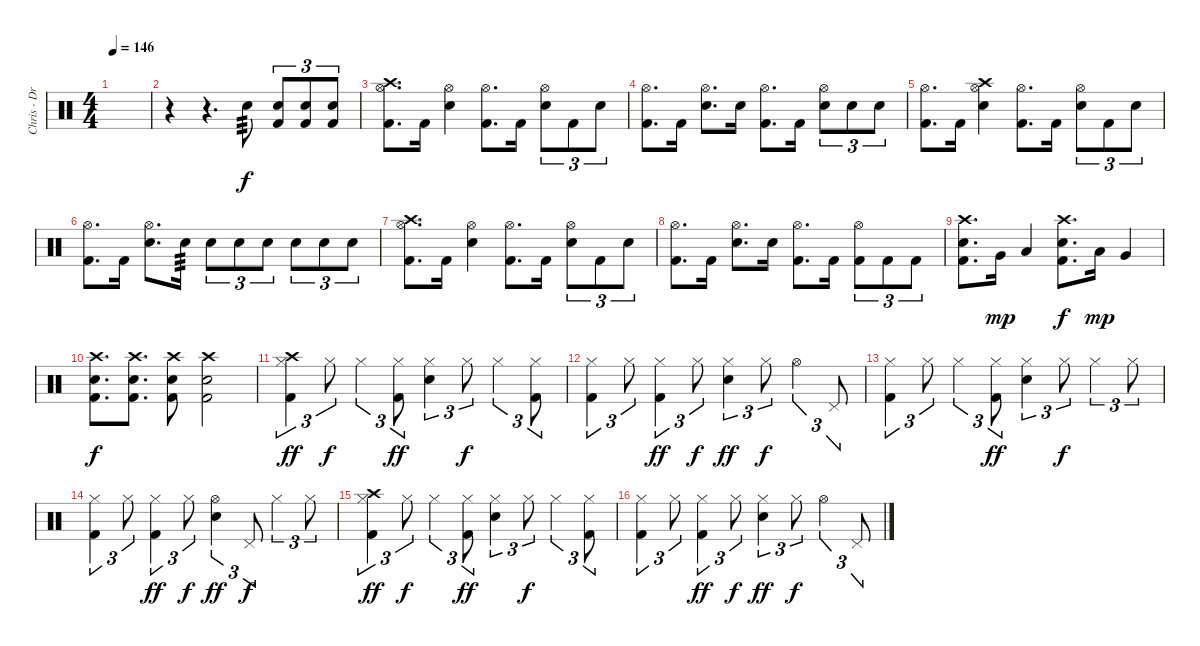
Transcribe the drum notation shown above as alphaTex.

\track ("Chris - Drums" "Chris - Dr") {instrument percussion}
\staff {score}
\articulation defaults
\ts (4 4)
\tempo 146
\clef neutral
\ks c
|
r.4 r.4{d} "Electric Snare (hit)".8{tp 3} ("Electric Snare (hit)" "Kick (hit) 2").8{tu (3 2)} ("Electric Snare (hit)" "Kick (hit) 2").8{tu (3 2)} ("Electric Snare (hit)" "Kick (hit) 2").8{tu (3 2)} |
("Crash high (hit)" "Hi-Hat (open)" "Kick (hit) 2").8{d} "Kick (hit) 2".16 ("Hi-Hat (open)" "Electric Snare (hit)").4 ("Hi-Hat (open)" "Kick (hit) 2").8{d} "Kick (hit) 2".16 ("Hi-Hat (open)" "Electric Snare (hit)").8{tu (3 2)} "Kick (hit) 2".8{tu (3 2)} "Electric Snare (hit)".8{tu (3 2)} |
("Hi-Hat (open)" "Kick (hit) 2").8{d} "Kick (hit) 2".16 ("Hi-Hat (open)" "Electric Snare (hit)").8{d} "Electric Snare (hit)".16 ("Hi-Hat (open)" "Kick (hit) 2").8{d} "Kick (hit) 2".16 ("Hi-Hat (open)" "Electric Snare (hit)").8{tu (3 2)} "Electric Snare (hit)".8{tu (3 2)} "Electric Snare (hit)".8{tu (3 2)} |
("Hi-Hat (open)" "Kick (hit) 2").8{d} "Kick (hit) 2".16 ("Crash high (hit)" "Hi-Hat (open)" "Electric Snare (hit)").4 ("Hi-Hat (open)" "Kick (hit) 2").8{d} "Kick (hit) 2".16 ("Hi-Hat (open)" "Electric Snare (hit)").8{tu (3 2)} "Kick (hit) 2".8{tu (3 2)} "Electric Snare (hit)".8{tu (3 2)} |
("Hi-Hat (open)" "Kick (hit) 2").8{d} "Kick (hit) 2".16 ("Hi-Hat (open)" "Electric Snare (hit)").8{d} "Electric Snare (hit)".16{tp 3} "Electric Snare (hit)".8{tu (3 2)} "Electric Snare (hit)".8{tu (3 2)} "Electric Snare (hit)".8{tu (3 2)} "Electric Snare (hit)".8{tu (3 2)} "Electric Snare (hit)".8{tu (3 2)} "Electric Snare (hit)".8{tu (3 2)} |
("Crash high (hit)" "Hi-Hat (open)" "Kick (hit) 2").8{d} "Kick (hit) 2".16 ("Hi-Hat (open)" "Electric Snare (hit)").4 ("Hi-Hat (open)" "Kick (hit) 2").8{d} "Kick (hit) 2".16 ("Hi-Hat (open)" "Electric Snare (hit)").8{tu (3 2)} "Kick (hit) 2".8{tu (3 2)} "Electric Snare (hit)".8{tu (3 2)} |
("Hi-Hat (open)" "Kick (hit) 2").8{d} "Kick (hit) 2".16 ("Hi-Hat (open)" "Electric Snare (hit)").8{d} "Electric Snare (hit)".16 ("Hi-Hat (open)" "Kick (hit) 2").8{d} "Kick (hit) 2".16 ("Hi-Hat (open)" "Kick (hit) 2").8{tu (3 2)} "Kick (hit) 2".8{tu (3 2)} "Kick (hit) 2".8{tu (3 2)} |
("Crash high (hit)" "Electric Snare (hit)" "Kick (hit) 2").8{d} "Very Low Tom (hit)".16{dy mp} "Low Floor Tom (hit)".4 ("Crash high (hit)" "Electric Snare (hit)" "Kick (hit) 2").8{d dy f} "Low Tom (hit)".16{dy mp} "Very Low Tom (hit)".4 |
("Crash high (hit)" "Electric Snare (hit)" "Kick (hit) 2").8{d dy f} ("Crash high (hit)" "Electric Snare (hit)" "Kick (hit) 2").8{d} ("Crash high (hit)" "Electric Snare (hit)" "Kick (hit) 2").8 ("Crash high (hit)" "Electric Snare (hit)" "Kick (hit) 2").2 |
("Crash high (hit)" "Hi-Hat (closed)" "Kick (hit) 2").4{tu (3 2) dy ff} "Hi-Hat (closed)".8{tu (3 2) dy f} "Hi-Hat (closed)".4{tu (3 2)} ("Hi-Hat (closed)" "Kick (hit) 2").8{tu (3 2) dy ff} ("Hi-Hat (closed)" "Electric Snare (hit)").4{tu (3 2)} "Hi-Hat (closed)".8{tu (3 2) dy f} "Hi-Hat (closed)".4{tu (3 2)} ("Hi-Hat (closed)" "Kick (hit) 2").8{tu (3 2)} |
("Hi-Hat (closed)" "Kick (hit) 2").4{tu (3 2)} "Hi-Hat (closed)".8{tu (3 2)} ("Hi-Hat (closed)" "Kick (hit) 2").4{tu (3 2) dy ff} "Hi-Hat (closed)".8{tu (3 2) dy f} ("Hi-Hat (closed)" "Electric Snare (hit)").4{tu (3 2) dy ff} "Hi-Hat (closed)".8{tu (3 2) dy f} "Hi-Hat (open)".4{tu (3 2)} "Pedal Hi-Hat (hit)".8{tu (3 2)} |
("Hi-Hat (closed)" "Kick (hit) 2").4{tu (3 2)} "Hi-Hat (closed)".8{tu (3 2)} "Hi-Hat (closed)".4{tu (3 2)} ("Hi-Hat (closed)" "Kick (hit) 2").8{tu (3 2) dy ff} ("Hi-Hat (closed)" "Electric Snare (hit)").4{tu (3 2)} "Hi-Hat (closed)".8{tu (3 2) dy f} "Hi-Hat (closed)".4{tu (3 2)} "Hi-Hat (closed)".8{tu (3 2)} |
("Hi-Hat (closed)" "Kick (hit) 2").4{tu (3 2)} "Hi-Hat (closed)".8{tu (3 2)} ("Hi-Hat (closed)" "Kick (hit) 2").4{tu (3 2) dy ff} "Hi-Hat (closed)".8{tu (3 2) dy f} ("Hi-Hat (open)" "Electric Snare (hit)").4{tu (3 2) dy ff} "Pedal Hi-Hat (hit)".8{tu (3 2) dy f} "Hi-Hat (closed)".4{tu (3 2)} "Hi-Hat (closed)".8{tu (3 2)} |
("Crash high (hit)" "Hi-Hat (closed)" "Kick (hit) 2").4{tu (3 2) dy ff} "Hi-Hat (closed)".8{tu (3 2) dy f} "Hi-Hat (closed)".4{tu (3 2)} ("Hi-Hat (closed)" "Kick (hit) 2").8{tu (3 2) dy ff} ("Hi-Hat (closed)" "Electric Snare (hit)").4{tu (3 2)} "Hi-Hat (closed)".8{tu (3 2) dy f} "Hi-Hat (closed)".4{tu (3 2)} ("Hi-Hat (closed)" "Kick (hit) 2").8{tu (3 2)} |
("Hi-Hat (closed)" "Kick (hit) 2").4{tu (3 2)} "Hi-Hat (closed)".8{tu (3 2)} ("Hi-Hat (closed)" "Kick (hit) 2").4{tu (3 2) dy ff} "Hi-Hat (closed)".8{tu (3 2) dy f} ("Hi-Hat (closed)" "Electric Snare (hit)").4{tu (3 2) dy ff} "Hi-Hat (closed)".8{tu (3 2) dy f} "Hi-Hat (open)".4{tu (3 2)} "Pedal Hi-Hat (hit)".8{tu (3 2)}
